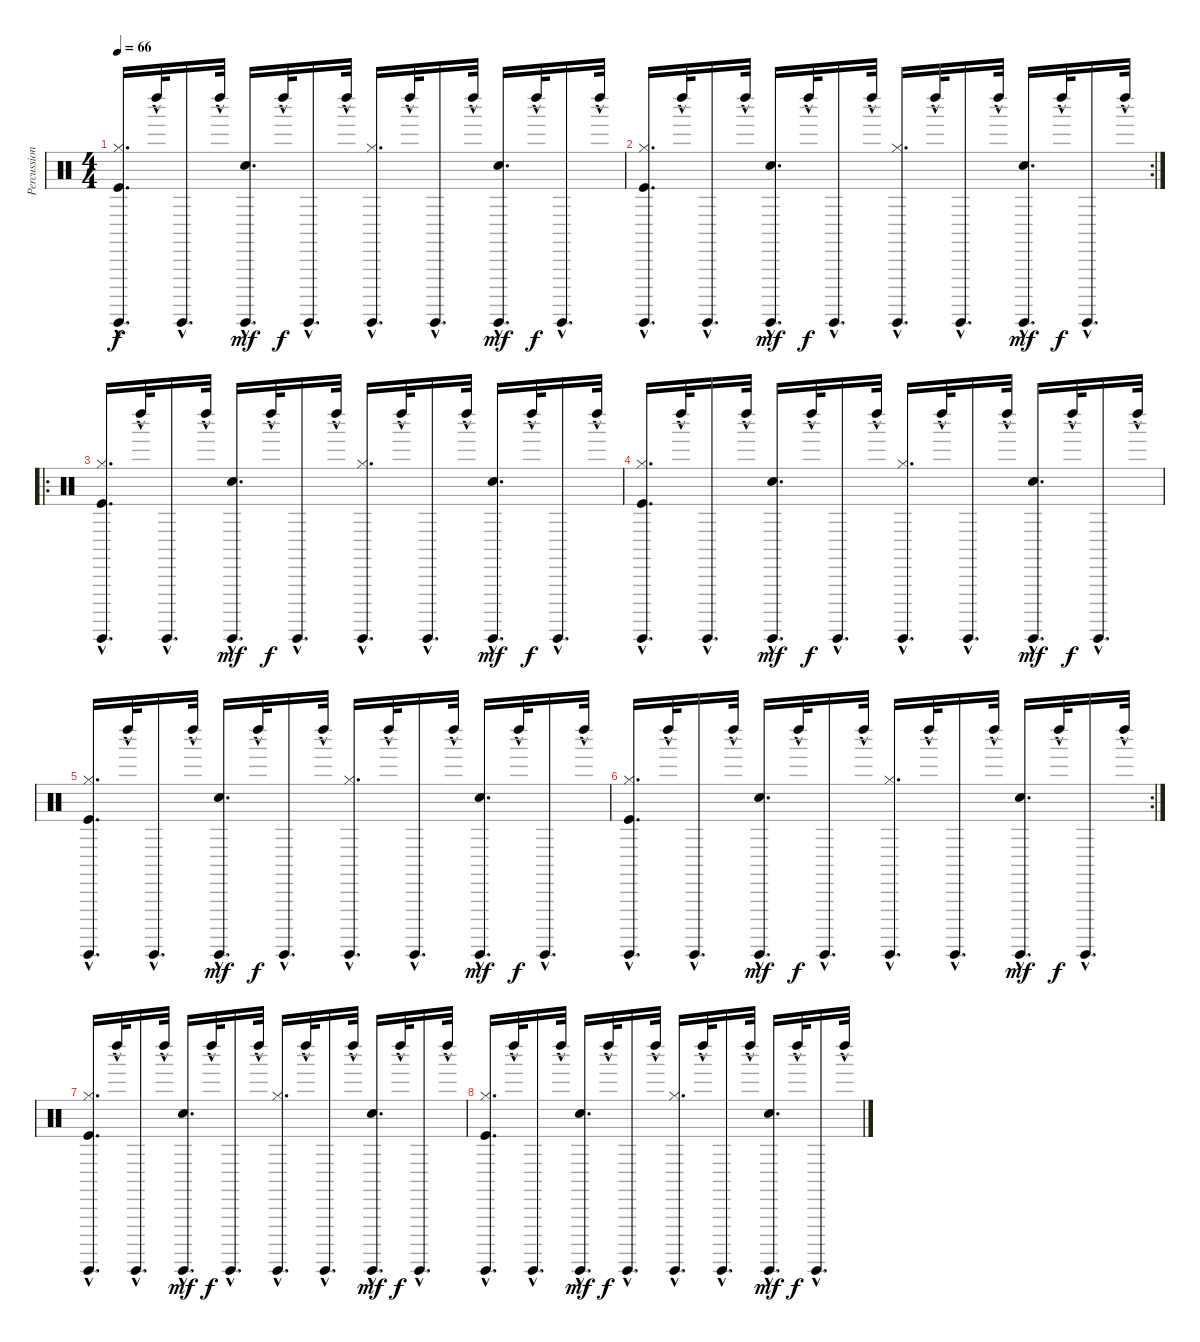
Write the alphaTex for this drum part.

\track ("Percussions" "Percussion") {instrument percussion}
\staff {score}
\articulation defaults
\ts (4 4)
\tempo 66
\clef neutral
\ks c
("Hi-Hat (closed)" "Kick (hit)" "Guiro (hit)"{hac}).16{d dy f} "Left Maraca (hit)"{hac}.32 "Guiro (hit)"{hac}.16{d} "Left Maraca (hit)"{hac}.32 ("Electric Snare (hit)" "Guiro (hit)"{hac}).16{d dy mf} "Left Maraca (hit)"{hac}.32{dy f} "Guiro (hit)"{hac}.16{d} "Left Maraca (hit)"{hac}.32 ("Hi-Hat (closed)" "Guiro (hit)"{hac}).16{d} "Left Maraca (hit)"{hac}.32 "Guiro (hit)"{hac}.16{d} "Left Maraca (hit)"{hac}.32 ("Electric Snare (hit)" "Guiro (hit)"{hac}).16{d dy mf} "Left Maraca (hit)"{hac}.32{dy f} "Guiro (hit)"{hac}.16{d} "Left Maraca (hit)"{hac}.32 |
\rc 2
("Hi-Hat (closed)" "Kick (hit)" "Guiro (hit)"{hac}).16{d} "Left Maraca (hit)"{hac}.32 "Guiro (hit)"{hac}.16{d} "Left Maraca (hit)"{hac}.32 ("Electric Snare (hit)" "Guiro (hit)"{hac}).16{d dy mf} "Left Maraca (hit)"{hac}.32{dy f} "Guiro (hit)"{hac}.16{d} "Left Maraca (hit)"{hac}.32 ("Hi-Hat (closed)" "Guiro (hit)"{hac}).16{d} "Left Maraca (hit)"{hac}.32 "Guiro (hit)"{hac}.16{d} "Left Maraca (hit)"{hac}.32 ("Electric Snare (hit)" "Guiro (hit)"{hac}).16{d dy mf} "Left Maraca (hit)"{hac}.32{dy f} "Guiro (hit)"{hac}.16{d} "Left Maraca (hit)"{hac}.32 |
\ro
("Hi-Hat (closed)" "Kick (hit)" "Guiro (hit)"{hac}).16{d} "Left Maraca (hit)"{hac}.32 "Guiro (hit)"{hac}.16{d} "Left Maraca (hit)"{hac}.32 ("Electric Snare (hit)" "Guiro (hit)"{hac}).16{d dy mf} "Left Maraca (hit)"{hac}.32{dy f} "Guiro (hit)"{hac}.16{d} "Left Maraca (hit)"{hac}.32 ("Hi-Hat (closed)" "Guiro (hit)"{hac}).16{d} "Left Maraca (hit)"{hac}.32 "Guiro (hit)"{hac}.16{d} "Left Maraca (hit)"{hac}.32 ("Electric Snare (hit)" "Guiro (hit)"{hac}).16{d dy mf} "Left Maraca (hit)"{hac}.32{dy f} "Guiro (hit)"{hac}.16{d} "Left Maraca (hit)"{hac}.32 |
("Hi-Hat (closed)" "Kick (hit)" "Guiro (hit)"{hac}).16{d} "Left Maraca (hit)"{hac}.32 "Guiro (hit)"{hac}.16{d} "Left Maraca (hit)"{hac}.32 ("Electric Snare (hit)" "Guiro (hit)"{hac}).16{d dy mf} "Left Maraca (hit)"{hac}.32{dy f} "Guiro (hit)"{hac}.16{d} "Left Maraca (hit)"{hac}.32 ("Hi-Hat (closed)" "Guiro (hit)"{hac}).16{d} "Left Maraca (hit)"{hac}.32 "Guiro (hit)"{hac}.16{d} "Left Maraca (hit)"{hac}.32 ("Electric Snare (hit)" "Guiro (hit)"{hac}).16{d dy mf} "Left Maraca (hit)"{hac}.32{dy f} "Guiro (hit)"{hac}.16{d} "Left Maraca (hit)"{hac}.32 |
("Hi-Hat (closed)" "Kick (hit)" "Guiro (hit)"{hac}).16{d} "Left Maraca (hit)"{hac}.32 "Guiro (hit)"{hac}.16{d} "Left Maraca (hit)"{hac}.32 ("Electric Snare (hit)" "Guiro (hit)"{hac}).16{d dy mf} "Left Maraca (hit)"{hac}.32{dy f} "Guiro (hit)"{hac}.16{d} "Left Maraca (hit)"{hac}.32 ("Hi-Hat (closed)" "Guiro (hit)"{hac}).16{d} "Left Maraca (hit)"{hac}.32 "Guiro (hit)"{hac}.16{d} "Left Maraca (hit)"{hac}.32 ("Electric Snare (hit)" "Guiro (hit)"{hac}).16{d dy mf} "Left Maraca (hit)"{hac}.32{dy f} "Guiro (hit)"{hac}.16{d} "Left Maraca (hit)"{hac}.32 |
\rc 2
("Hi-Hat (closed)" "Kick (hit)" "Guiro (hit)"{hac}).16{d} "Left Maraca (hit)"{hac}.32 "Guiro (hit)"{hac}.16{d} "Left Maraca (hit)"{hac}.32 ("Electric Snare (hit)" "Guiro (hit)"{hac}).16{d dy mf} "Left Maraca (hit)"{hac}.32{dy f} "Guiro (hit)"{hac}.16{d} "Left Maraca (hit)"{hac}.32 ("Hi-Hat (closed)" "Guiro (hit)"{hac}).16{d} "Left Maraca (hit)"{hac}.32 "Guiro (hit)"{hac}.16{d} "Left Maraca (hit)"{hac}.32 ("Electric Snare (hit)" "Guiro (hit)"{hac}).16{d dy mf} "Left Maraca (hit)"{hac}.32{dy f} "Guiro (hit)"{hac}.16{d} "Left Maraca (hit)"{hac}.32 |
("Hi-Hat (closed)" "Kick (hit)" "Guiro (hit)"{hac}).16{d} "Left Maraca (hit)"{hac}.32 "Guiro (hit)"{hac}.16{d} "Left Maraca (hit)"{hac}.32 ("Electric Snare (hit)" "Guiro (hit)"{hac}).16{d dy mf} "Left Maraca (hit)"{hac}.32{dy f} "Guiro (hit)"{hac}.16{d} "Left Maraca (hit)"{hac}.32 ("Hi-Hat (closed)" "Guiro (hit)"{hac}).16{d} "Left Maraca (hit)"{hac}.32 "Guiro (hit)"{hac}.16{d} "Left Maraca (hit)"{hac}.32 ("Electric Snare (hit)" "Guiro (hit)"{hac}).16{d dy mf} "Left Maraca (hit)"{hac}.32{dy f} "Guiro (hit)"{hac}.16{d} "Left Maraca (hit)"{hac}.32 |
("Hi-Hat (closed)" "Kick (hit)" "Guiro (hit)"{hac}).16{d} "Left Maraca (hit)"{hac}.32 "Guiro (hit)"{hac}.16{d} "Left Maraca (hit)"{hac}.32 ("Electric Snare (hit)" "Guiro (hit)"{hac}).16{d dy mf} "Left Maraca (hit)"{hac}.32{dy f} "Guiro (hit)"{hac}.16{d} "Left Maraca (hit)"{hac}.32 ("Hi-Hat (closed)" "Guiro (hit)"{hac}).16{d} "Left Maraca (hit)"{hac}.32 "Guiro (hit)"{hac}.16{d} "Left Maraca (hit)"{hac}.32 ("Electric Snare (hit)" "Guiro (hit)"{hac}).16{d dy mf} "Left Maraca (hit)"{hac}.32{dy f} "Guiro (hit)"{hac}.16{d} "Left Maraca (hit)"{hac}.32
